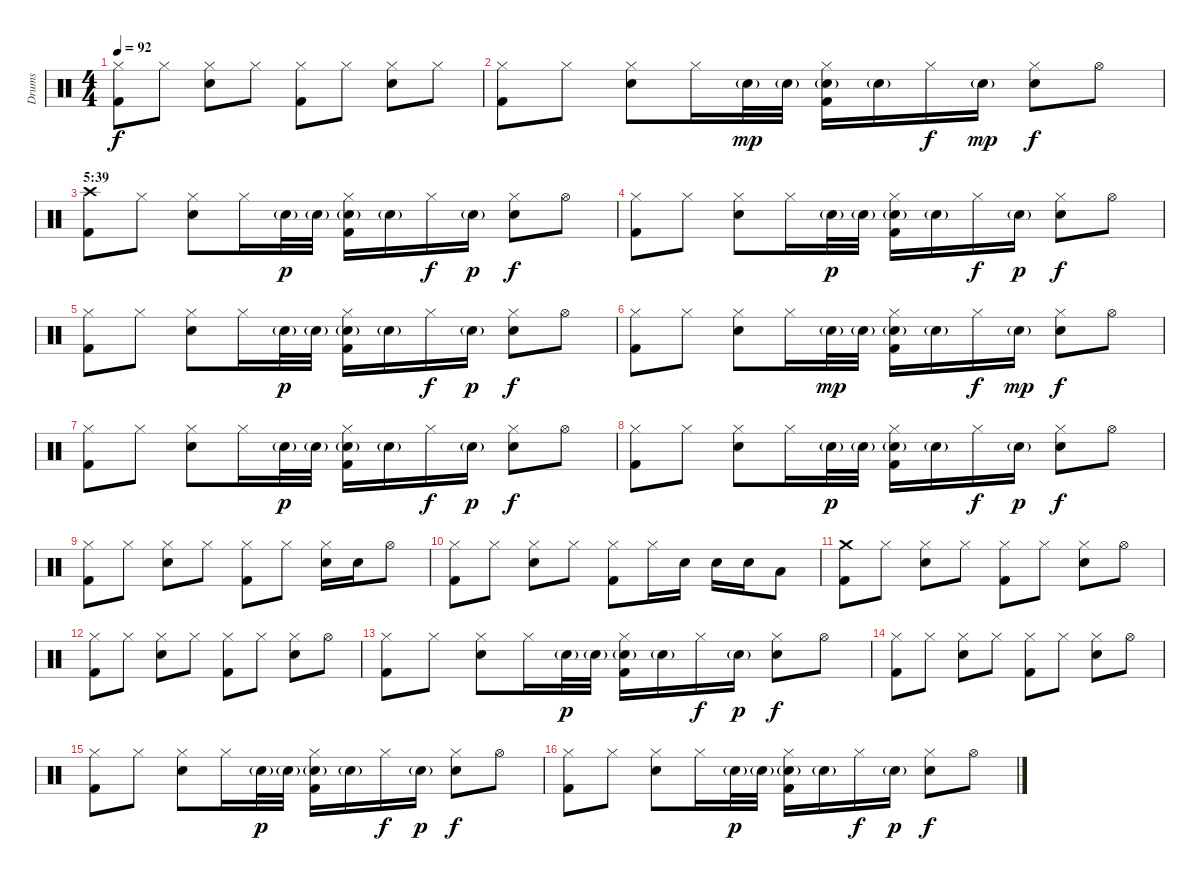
\track ("Drums" "Drums") {instrument percussion}
\staff {score}
\articulation defaults
\ts (4 4)
\tempo 92
\clef neutral
\ks c
("Hi-Hat (closed)" "Kick (hit) 2").8{dy f} "Hi-Hat (closed)".8 ("Hi-Hat (closed)" "Snare (hit) 2").8 "Hi-Hat (closed)".8 ("Hi-Hat (closed)" "Kick (hit) 2").8 "Hi-Hat (closed)".8 ("Hi-Hat (closed)" "Snare (hit) 2").8 "Hi-Hat (closed)".8 |
("Hi-Hat (closed)" "Kick (hit) 2").8 "Hi-Hat (closed)".8 ("Hi-Hat (closed)" "Snare (hit) 2").8 "Hi-Hat (closed)".16 "Snare (hit) 2"{g}.32{dy mp} "Snare (hit) 2"{g}.32 ("Hi-Hat (closed)" "Snare (hit) 2"{g} "Kick (hit) 2").16 "Snare (hit) 2"{g}.16 "Hi-Hat (closed)".16{dy f} "Snare (hit) 2"{g}.16{dy mp} ("Hi-Hat (closed)" "Snare (hit) 2").8{dy f} "Hi-Hat (open)".8 |
\section ("" "5:39")
("Crash high (hit)" "Kick (hit) 2").8 "Hi-Hat (closed)".8 ("Hi-Hat (closed)" "Snare (hit) 2").8 "Hi-Hat (closed)".16 "Snare (hit) 2"{g}.32{dy p} "Snare (hit) 2"{g}.32 ("Hi-Hat (closed)" "Snare (hit) 2"{g} "Kick (hit) 2").16 "Snare (hit) 2"{g}.16 "Hi-Hat (closed)".16{dy f} "Snare (hit) 2"{g}.16{dy p} ("Hi-Hat (closed)" "Snare (hit) 2").8{dy f} "Hi-Hat (open)".8 |
("Hi-Hat (closed)" "Kick (hit) 2").8 "Hi-Hat (closed)".8 ("Hi-Hat (closed)" "Snare (hit) 2").8 "Hi-Hat (closed)".16 "Snare (hit) 2"{g}.32{dy p} "Snare (hit) 2"{g}.32 ("Hi-Hat (closed)" "Snare (hit) 2"{g} "Kick (hit) 2").16 "Snare (hit) 2"{g}.16 "Hi-Hat (closed)".16{dy f} "Snare (hit) 2"{g}.16{dy p} ("Hi-Hat (closed)" "Snare (hit) 2").8{dy f} "Hi-Hat (open)".8 |
("Hi-Hat (closed)" "Kick (hit) 2").8 "Hi-Hat (closed)".8 ("Hi-Hat (closed)" "Snare (hit) 2").8 "Hi-Hat (closed)".16 "Snare (hit) 2"{g}.32{dy p} "Snare (hit) 2"{g}.32 ("Hi-Hat (closed)" "Snare (hit) 2"{g} "Kick (hit) 2").16 "Snare (hit) 2"{g}.16 "Hi-Hat (closed)".16{dy f} "Snare (hit) 2"{g}.16{dy p} ("Hi-Hat (closed)" "Snare (hit) 2").8{dy f} "Hi-Hat (open)".8 |
("Hi-Hat (closed)" "Kick (hit) 2").8 "Hi-Hat (closed)".8 ("Hi-Hat (closed)" "Snare (hit) 2").8 "Hi-Hat (closed)".16 "Snare (hit) 2"{g}.32{dy mp} "Snare (hit) 2"{g}.32 ("Hi-Hat (closed)" "Snare (hit) 2"{g} "Kick (hit) 2").16 "Snare (hit) 2"{g}.16 "Hi-Hat (closed)".16{dy f} "Snare (hit) 2"{g}.16{dy mp} ("Hi-Hat (closed)" "Snare (hit) 2").8{dy f} "Hi-Hat (open)".8 |
("Hi-Hat (closed)" "Kick (hit) 2").8 "Hi-Hat (closed)".8 ("Hi-Hat (closed)" "Snare (hit) 2").8 "Hi-Hat (closed)".16 "Snare (hit) 2"{g}.32{dy p} "Snare (hit) 2"{g}.32 ("Hi-Hat (closed)" "Snare (hit) 2"{g} "Kick (hit) 2").16 "Snare (hit) 2"{g}.16 "Hi-Hat (closed)".16{dy f} "Snare (hit) 2"{g}.16{dy p} ("Hi-Hat (closed)" "Snare (hit) 2").8{dy f} "Hi-Hat (open)".8 |
("Hi-Hat (closed)" "Kick (hit) 2").8 "Hi-Hat (closed)".8 ("Hi-Hat (closed)" "Snare (hit) 2").8 "Hi-Hat (closed)".16 "Snare (hit) 2"{g}.32{dy p} "Snare (hit) 2"{g}.32 ("Hi-Hat (closed)" "Snare (hit) 2"{g} "Kick (hit) 2").16 "Snare (hit) 2"{g}.16 "Hi-Hat (closed)".16{dy f} "Snare (hit) 2"{g}.16{dy p} ("Hi-Hat (closed)" "Snare (hit) 2").8{dy f} "Hi-Hat (open)".8 |
("Hi-Hat (closed)" "Kick (hit) 2").8 "Hi-Hat (closed)".8 ("Hi-Hat (closed)" "Snare (hit) 2").8 "Hi-Hat (closed)".8 ("Hi-Hat (closed)" "Kick (hit) 2").8 "Hi-Hat (closed)".8 ("Hi-Hat (closed)" "Snare (hit) 2").16 "Snare (hit) 2".16 "Hi-Hat (open)".8 |
("Hi-Hat (closed)" "Kick (hit) 2").8 "Hi-Hat (closed)".8 ("Hi-Hat (closed)" "Snare (hit) 2").8 "Hi-Hat (closed)".8 ("Hi-Hat (closed)" "Kick (hit) 2").8 "Hi-Hat (closed)".16 "Snare (hit) 2".16 "Snare (hit) 2".16 "Snare (hit) 2".16 "Low Tom (hit)".8 |
("Crash medium (hit)" "Kick (hit) 2").8 "Hi-Hat (closed)".8 ("Hi-Hat (closed)" "Snare (hit) 2").8 "Hi-Hat (closed)".8 ("Hi-Hat (closed)" "Kick (hit) 2").8 "Hi-Hat (closed)".8 ("Hi-Hat (closed)" "Snare (hit) 2").8 "Hi-Hat (open)".8 |
("Hi-Hat (closed)" "Kick (hit) 2").8 "Hi-Hat (closed)".8 ("Hi-Hat (closed)" "Snare (hit) 2").8 "Hi-Hat (closed)".8 ("Hi-Hat (closed)" "Kick (hit) 2").8 "Hi-Hat (closed)".8 ("Hi-Hat (closed)" "Snare (hit) 2").8 "Hi-Hat (open)".8 |
("Hi-Hat (closed)" "Kick (hit) 2").8 "Hi-Hat (closed)".8 ("Hi-Hat (closed)" "Snare (hit) 2").8 "Hi-Hat (closed)".16 "Snare (hit) 2"{g}.32{dy p} "Snare (hit) 2"{g}.32 ("Hi-Hat (closed)" "Snare (hit) 2"{g} "Kick (hit) 2").16 "Snare (hit) 2"{g}.16 "Hi-Hat (closed)".16{dy f} "Snare (hit) 2"{g}.16{dy p} ("Hi-Hat (closed)" "Snare (hit) 2").8{dy f} "Hi-Hat (open)".8 |
("Hi-Hat (closed)" "Kick (hit) 2").8 "Hi-Hat (closed)".8 ("Hi-Hat (closed)" "Snare (hit) 2").8 "Hi-Hat (closed)".8 ("Hi-Hat (closed)" "Kick (hit) 2").8 "Hi-Hat (closed)".8 ("Hi-Hat (closed)" "Snare (hit) 2").8 "Hi-Hat (open)".8 |
("Hi-Hat (closed)" "Kick (hit) 2").8 "Hi-Hat (closed)".8 ("Hi-Hat (closed)" "Snare (hit) 2").8 "Hi-Hat (closed)".16 "Snare (hit) 2"{g}.32{dy p} "Snare (hit) 2"{g}.32 ("Hi-Hat (closed)" "Snare (hit) 2"{g} "Kick (hit) 2").16 "Snare (hit) 2"{g}.16 "Hi-Hat (closed)".16{dy f} "Snare (hit) 2"{g}.16{dy p} ("Hi-Hat (closed)" "Snare (hit) 2").8{dy f} "Hi-Hat (open)".8 |
("Hi-Hat (closed)" "Kick (hit) 2").8 "Hi-Hat (closed)".8 ("Hi-Hat (closed)" "Snare (hit) 2").8 "Hi-Hat (closed)".16 "Snare (hit) 2"{g}.32{dy p} "Snare (hit) 2"{g}.32 ("Hi-Hat (closed)" "Snare (hit) 2"{g} "Kick (hit) 2").16 "Snare (hit) 2"{g}.16 "Hi-Hat (closed)".16{dy f} "Snare (hit) 2"{g}.16{dy p} ("Hi-Hat (closed)" "Snare (hit) 2").8{dy f} "Hi-Hat (open)".8
